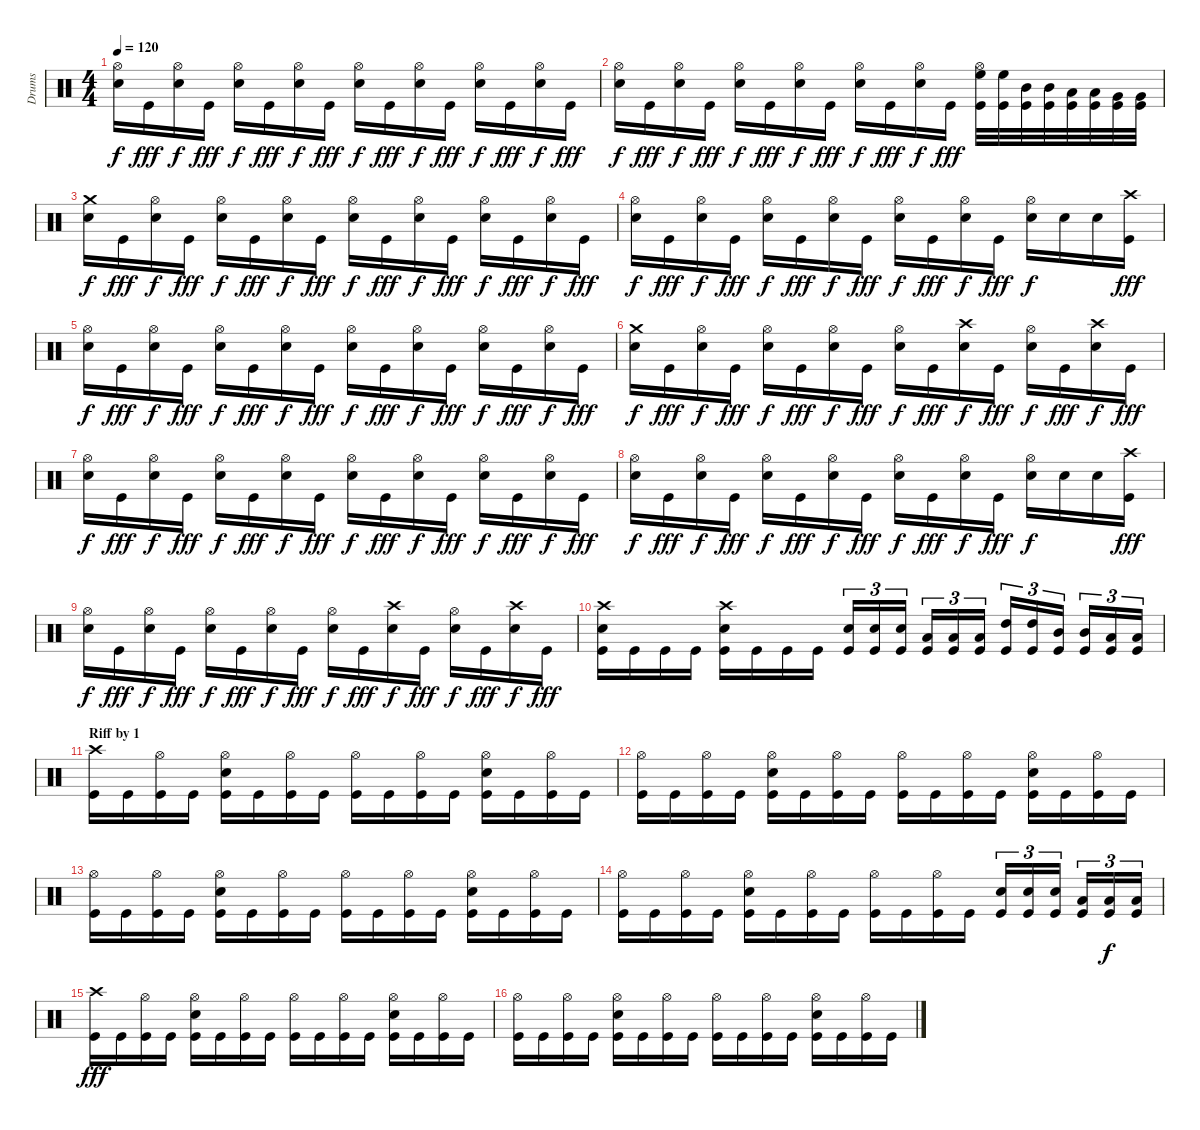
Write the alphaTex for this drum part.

\track ("Drums" "Drums") {instrument percussion}
\staff {score}
\articulation defaults
\ts (4 4)
\tempo 120
\clef neutral
\ks c
("Hi-Hat (open)" "Electric Snare (hit)").16{dy f} "Kick (hit)".16{dy fff} ("Hi-Hat (open)" "Electric Snare (hit)").16{dy f} "Kick (hit)".16{dy fff} ("Hi-Hat (open)" "Electric Snare (hit)").16{dy f} "Kick (hit)".16{dy fff} ("Hi-Hat (open)" "Electric Snare (hit)").16{dy f} "Kick (hit)".16{dy fff} ("Hi-Hat (open)" "Electric Snare (hit)").16{dy f} "Kick (hit)".16{dy fff} ("Hi-Hat (open)" "Electric Snare (hit)").16{dy f} "Kick (hit)".16{dy fff} ("Hi-Hat (open)" "Electric Snare (hit)").16{dy f} "Kick (hit)".16{dy fff} ("Hi-Hat (open)" "Electric Snare (hit)").16{dy f} "Kick (hit)".16{dy fff} |
("Hi-Hat (open)" "Electric Snare (hit)").16{dy f} "Kick (hit)".16{dy fff} ("Hi-Hat (open)" "Electric Snare (hit)").16{dy f} "Kick (hit)".16{dy fff} ("Hi-Hat (open)" "Electric Snare (hit)").16{dy f} "Kick (hit)".16{dy fff} ("Hi-Hat (open)" "Electric Snare (hit)").16{dy f} "Kick (hit)".16{dy fff} ("Hi-Hat (open)" "Electric Snare (hit)").16{dy f} "Kick (hit)".16{dy fff} ("Hi-Hat (open)" "Electric Snare (hit)").16{dy f} "Kick (hit)".16{dy fff} ("Hi-Hat (open)" "High Floor Tom (hit)" "Kick (hit)").32 ("High Floor Tom (hit)" "Kick (hit)").32 ("Mid Tom (hit)" "Kick (hit)").32 ("Mid Tom (hit)" "Kick (hit)").32 ("Low Tom (hit)" "Kick (hit)").32 ("Low Tom (hit)" "Kick (hit)").32 ("Very Low Tom (hit)" "Kick (hit)").32 ("Very Low Tom (hit)" "Kick (hit)").32 |
("Crash medium (hit)" "Electric Snare (hit)").16{dy f} "Kick (hit)".16{dy fff} ("Hi-Hat (open)" "Electric Snare (hit)").16{dy f} "Kick (hit)".16{dy fff} ("Hi-Hat (open)" "Electric Snare (hit)").16{dy f} "Kick (hit)".16{dy fff} ("Hi-Hat (open)" "Electric Snare (hit)").16{dy f} "Kick (hit)".16{dy fff} ("Hi-Hat (open)" "Electric Snare (hit)").16{dy f} "Kick (hit)".16{dy fff} ("Hi-Hat (open)" "Electric Snare (hit)").16{dy f} "Kick (hit)".16{dy fff} ("Hi-Hat (open)" "Electric Snare (hit)").16{dy f} "Kick (hit)".16{dy fff} ("Hi-Hat (open)" "Electric Snare (hit)").16{dy f} "Kick (hit)".16{dy fff} |
("Hi-Hat (open)" "Electric Snare (hit)").16{dy f} "Kick (hit)".16{dy fff} ("Hi-Hat (open)" "Electric Snare (hit)").16{dy f} "Kick (hit)".16{dy fff} ("Hi-Hat (open)" "Electric Snare (hit)").16{dy f} "Kick (hit)".16{dy fff} ("Hi-Hat (open)" "Electric Snare (hit)").16{dy f} "Kick (hit)".16{dy fff} ("Hi-Hat (open)" "Electric Snare (hit)").16{dy f} "Kick (hit)".16{dy fff} ("Hi-Hat (open)" "Electric Snare (hit)").16{dy f} "Kick (hit)".16{dy fff} ("Hi-Hat (open)" "Electric Snare (hit)").16{dy f} "Electric Snare (hit)".16 "Electric Snare (hit)".16 ("Crash high (hit)" "Kick (hit)").16{dy fff} |
("Hi-Hat (open)" "Electric Snare (hit)").16{dy f} "Kick (hit)".16{dy fff} ("Hi-Hat (open)" "Electric Snare (hit)").16{dy f} "Kick (hit)".16{dy fff} ("Hi-Hat (open)" "Electric Snare (hit)").16{dy f} "Kick (hit)".16{dy fff} ("Hi-Hat (open)" "Electric Snare (hit)").16{dy f} "Kick (hit)".16{dy fff} ("Hi-Hat (open)" "Electric Snare (hit)").16{dy f} "Kick (hit)".16{dy fff} ("Hi-Hat (open)" "Electric Snare (hit)").16{dy f} "Kick (hit)".16{dy fff} ("Hi-Hat (open)" "Electric Snare (hit)").16{dy f} "Kick (hit)".16{dy fff} ("Hi-Hat (open)" "Electric Snare (hit)").16{dy f} "Kick (hit)".16{dy fff} |
("Crash medium (hit)" "Electric Snare (hit)").16{dy f} "Kick (hit)".16{dy fff} ("Hi-Hat (open)" "Electric Snare (hit)").16{dy f} "Kick (hit)".16{dy fff} ("Hi-Hat (open)" "Electric Snare (hit)").16{dy f} "Kick (hit)".16{dy fff} ("Hi-Hat (open)" "Electric Snare (hit)").16{dy f} "Kick (hit)".16{dy fff} ("Hi-Hat (open)" "Electric Snare (hit)").16{dy f} "Kick (hit)".16{dy fff} ("Crash high (hit)" "Electric Snare (hit)").16{dy f} "Kick (hit)".16{dy fff} ("Hi-Hat (open)" "Electric Snare (hit)").16{dy f} "Kick (hit)".16{dy fff} ("Crash high (hit)" "Electric Snare (hit)").16{dy f} "Kick (hit)".16{dy fff} |
("Hi-Hat (open)" "Electric Snare (hit)").16{dy f} "Kick (hit)".16{dy fff} ("Hi-Hat (open)" "Electric Snare (hit)").16{dy f} "Kick (hit)".16{dy fff} ("Hi-Hat (open)" "Electric Snare (hit)").16{dy f} "Kick (hit)".16{dy fff} ("Hi-Hat (open)" "Electric Snare (hit)").16{dy f} "Kick (hit)".16{dy fff} ("Hi-Hat (open)" "Electric Snare (hit)").16{dy f} "Kick (hit)".16{dy fff} ("Hi-Hat (open)" "Electric Snare (hit)").16{dy f} "Kick (hit)".16{dy fff} ("Hi-Hat (open)" "Electric Snare (hit)").16{dy f} "Kick (hit)".16{dy fff} ("Hi-Hat (open)" "Electric Snare (hit)").16{dy f} "Kick (hit)".16{dy fff} |
("Hi-Hat (open)" "Electric Snare (hit)").16{dy f} "Kick (hit)".16{dy fff} ("Hi-Hat (open)" "Electric Snare (hit)").16{dy f} "Kick (hit)".16{dy fff} ("Hi-Hat (open)" "Electric Snare (hit)").16{dy f} "Kick (hit)".16{dy fff} ("Hi-Hat (open)" "Electric Snare (hit)").16{dy f} "Kick (hit)".16{dy fff} ("Hi-Hat (open)" "Electric Snare (hit)").16{dy f} "Kick (hit)".16{dy fff} ("Hi-Hat (open)" "Electric Snare (hit)").16{dy f} "Kick (hit)".16{dy fff} ("Hi-Hat (open)" "Electric Snare (hit)").16{dy f} "Electric Snare (hit)".16 "Electric Snare (hit)".16 ("Crash high (hit)" "Kick (hit)").16{dy fff} |
("Hi-Hat (open)" "Electric Snare (hit)").16{dy f} "Kick (hit)".16{dy fff} ("Hi-Hat (open)" "Electric Snare (hit)").16{dy f} "Kick (hit)".16{dy fff} ("Hi-Hat (open)" "Electric Snare (hit)").16{dy f} "Kick (hit)".16{dy fff} ("Hi-Hat (open)" "Electric Snare (hit)").16{dy f} "Kick (hit)".16{dy fff} ("Hi-Hat (open)" "Electric Snare (hit)").16{dy f} "Kick (hit)".16{dy fff} ("Crash high (hit)" "Electric Snare (hit)").16{dy f} "Kick (hit)".16{dy fff} ("Hi-Hat (open)" "Electric Snare (hit)").16{dy f} "Kick (hit)".16{dy fff} ("Crash high (hit)" "Electric Snare (hit)").16{dy f} "Kick (hit)".16{dy fff} |
("Crash high (hit)" "Electric Snare (hit)" "Kick (hit)").16 "Kick (hit)".16 "Kick (hit)".16 "Kick (hit)".16 ("Crash high (hit)" "Electric Snare (hit)" "Kick (hit)").16 "Kick (hit)".16 "Kick (hit)".16 "Kick (hit)".16 ("Electric Snare (hit)" "Kick (hit)").16{tu (3 2)} ("Electric Snare (hit)" "Kick (hit)").16{tu (3 2)} ("Electric Snare (hit)" "Kick (hit)").16{tu (3 2)} ("Low Floor Tom (hit)" "Kick (hit)").16{tu (3 2)} ("Low Floor Tom (hit)" "Kick (hit)").16{tu (3 2)} ("Low Floor Tom (hit)" "Kick (hit)").16{tu (3 2)} ("High Tom (hit)" "Kick (hit)").16{tu (3 2)} ("High Tom (hit)" "Kick (hit)").16{tu (3 2)} ("Mid Tom (hit)" "Kick (hit)").16{tu (3 2)} ("Mid Tom (hit)" "Kick (hit)").16{tu (3 2)} ("Low Tom (hit)" "Kick (hit)").16{tu (3 2)} ("Low Tom (hit)" "Kick (hit)").16{tu (3 2)} |
\section ("" "Riff by 1")
("Crash high (hit)" "Kick (hit)").16 "Kick (hit)".16 ("Hi-Hat (open)" "Kick (hit)").16 "Kick (hit)".16 ("Hi-Hat (open)" "Electric Snare (hit)" "Kick (hit)").16 "Kick (hit)".16 ("Hi-Hat (open)" "Kick (hit)").16 "Kick (hit)".16 ("Hi-Hat (open)" "Kick (hit)").16 "Kick (hit)".16 ("Hi-Hat (open)" "Kick (hit)").16 "Kick (hit)".16 ("Hi-Hat (open)" "Electric Snare (hit)" "Kick (hit)").16 "Kick (hit)".16 ("Hi-Hat (open)" "Kick (hit)").16 "Kick (hit)".16 |
("Hi-Hat (open)" "Kick (hit)").16 "Kick (hit)".16 ("Hi-Hat (open)" "Kick (hit)").16 "Kick (hit)".16 ("Hi-Hat (open)" "Electric Snare (hit)" "Kick (hit)").16 "Kick (hit)".16 ("Hi-Hat (open)" "Kick (hit)").16 "Kick (hit)".16 ("Hi-Hat (open)" "Kick (hit)").16 "Kick (hit)".16 ("Hi-Hat (open)" "Kick (hit)").16 "Kick (hit)".16 ("Hi-Hat (open)" "Electric Snare (hit)" "Kick (hit)").16 "Kick (hit)".16 ("Hi-Hat (open)" "Kick (hit)").16 "Kick (hit)".16 |
("Hi-Hat (open)" "Kick (hit)").16 "Kick (hit)".16 ("Hi-Hat (open)" "Kick (hit)").16 "Kick (hit)".16 ("Hi-Hat (open)" "Electric Snare (hit)" "Kick (hit)").16 "Kick (hit)".16 ("Hi-Hat (open)" "Kick (hit)").16 "Kick (hit)".16 ("Hi-Hat (open)" "Kick (hit)").16 "Kick (hit)".16 ("Hi-Hat (open)" "Kick (hit)").16 "Kick (hit)".16 ("Hi-Hat (open)" "Electric Snare (hit)" "Kick (hit)").16 "Kick (hit)".16 ("Hi-Hat (open)" "Kick (hit)").16 "Kick (hit)".16 |
("Hi-Hat (open)" "Kick (hit)").16 "Kick (hit)".16 ("Hi-Hat (open)" "Kick (hit)").16 "Kick (hit)".16 ("Hi-Hat (open)" "Electric Snare (hit)" "Kick (hit)").16 "Kick (hit)".16 ("Hi-Hat (open)" "Kick (hit)").16 "Kick (hit)".16 ("Hi-Hat (open)" "Kick (hit)").16 "Kick (hit)".16 ("Hi-Hat (open)" "Kick (hit)").16 "Kick (hit)".16 ("Electric Snare (hit)" "Kick (hit)").16{tu (3 2)} ("Electric Snare (hit)" "Kick (hit)").16{tu (3 2)} ("Electric Snare (hit)" "Kick (hit)").16{tu (3 2)} ("Low Tom (hit)" "Kick (hit)").16{tu (3 2)} ("Low Tom (hit)" "Kick (hit)").16{tu (3 2) dy f} ("Low Tom (hit)" "Kick (hit)").16{tu (3 2)} |
("Crash high (hit)" "Kick (hit)").16{dy fff} "Kick (hit)".16 ("Hi-Hat (open)" "Kick (hit)").16 "Kick (hit)".16 ("Hi-Hat (open)" "Electric Snare (hit)" "Kick (hit)").16 "Kick (hit)".16 ("Hi-Hat (open)" "Kick (hit)").16 "Kick (hit)".16 ("Hi-Hat (open)" "Kick (hit)").16 "Kick (hit)".16 ("Hi-Hat (open)" "Kick (hit)").16 "Kick (hit)".16 ("Hi-Hat (open)" "Electric Snare (hit)" "Kick (hit)").16 "Kick (hit)".16 ("Hi-Hat (open)" "Kick (hit)").16 "Kick (hit)".16 |
("Hi-Hat (open)" "Kick (hit)").16 "Kick (hit)".16 ("Hi-Hat (open)" "Kick (hit)").16 "Kick (hit)".16 ("Hi-Hat (open)" "Electric Snare (hit)" "Kick (hit)").16 "Kick (hit)".16 ("Hi-Hat (open)" "Kick (hit)").16 "Kick (hit)".16 ("Hi-Hat (open)" "Kick (hit)").16 "Kick (hit)".16 ("Hi-Hat (open)" "Kick (hit)").16 "Kick (hit)".16 ("Hi-Hat (open)" "Electric Snare (hit)" "Kick (hit)").16 "Kick (hit)".16 ("Hi-Hat (open)" "Kick (hit)").16 "Kick (hit)".16
